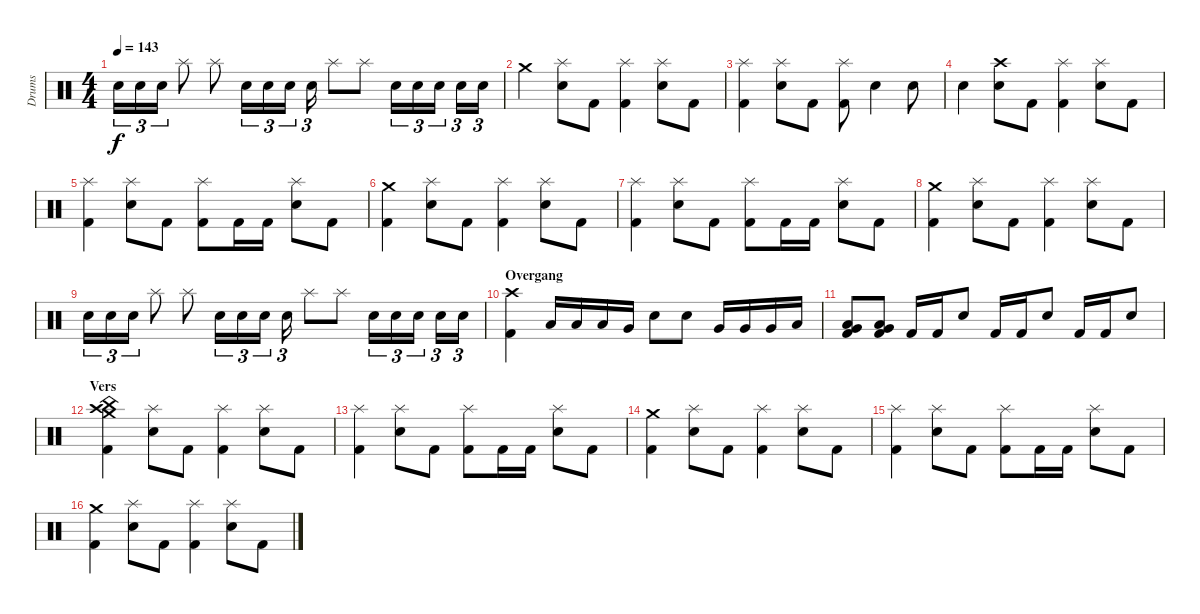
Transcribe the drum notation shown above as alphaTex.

\track ("Drums" "Drums") {instrument percussion}
\staff {score}
\articulation defaults
\ts (4 4)
\tempo 143
\clef neutral
\ks c "Snare (hit) 2".16{tu (3 2) dy f} "Snare (hit) 2".16{tu (3 2)} "Snare (hit) 2".16{tu (3 2)} "Splash (hit)".8 "Splash (hit)".8 "Snare (hit) 2".16{tu (3 2)} "Snare (hit) 2".16{tu (3 2)} "Snare (hit) 2".16{tu (3 2)} "Snare (hit) 2".16{tu (3 2)} "Splash (hit)".8 "Splash (hit)".8 "Snare (hit) 2".16{tu (3 2)} "Snare (hit) 2".16{tu (3 2)} "Snare (hit) 2".16{tu (3 2) beam splitsecondary} "Snare (hit) 2".16{tu (3 2)} "Snare (hit) 2".16{tu (3 2)}
|
"Crash medium (hit)".4 ("Splash (hit)" "Snare (hit) 2").8 "Kick (hit) 2".8 ("Splash (hit)" "Kick (hit) 2").4 ("Splash (hit)" "Snare (hit) 2").8 "Kick (hit) 2".8 |
("Splash (hit)" "Kick (hit) 2").4 ("Splash (hit)" "Snare (hit) 2").8 "Kick (hit) 2".8 ("Splash (hit)" "Kick (hit) 2").8 "Snare (hit) 2".4 "Snare (hit) 2".8 |
"Snare (hit) 2".4 ("Crash high (hit)" "Snare (hit) 2").8 "Kick (hit) 2".8 ("Splash (hit)" "Kick (hit) 2").4 ("Splash (hit)" "Snare (hit) 2").8 "Kick (hit) 2".8 |
("Splash (hit)" "Kick (hit) 2").4 ("Splash (hit)" "Snare (hit) 2").8 "Kick (hit) 2".8 ("Splash (hit)" "Kick (hit) 2").8 "Kick (hit) 2".16 "Kick (hit) 2".16 ("Splash (hit)" "Snare (hit) 2").8 "Kick (hit) 2".8 |
("Crash medium (hit)" "Kick (hit) 2").4 ("Splash (hit)" "Snare (hit) 2").8 "Kick (hit) 2".8 ("Splash (hit)" "Kick (hit) 2").4 ("Splash (hit)" "Snare (hit) 2").8 "Kick (hit) 2".8 |
("Splash (hit)" "Kick (hit) 2").4 ("Splash (hit)" "Snare (hit) 2").8 "Kick (hit) 2".8 ("Splash (hit)" "Kick (hit) 2").8 "Kick (hit) 2".16 "Kick (hit) 2".16 ("Splash (hit)" "Snare (hit) 2").8 "Kick (hit) 2".8 |
("Crash medium (hit)" "Kick (hit) 2").4 ("Splash (hit)" "Snare (hit) 2").8 "Kick (hit) 2".8 ("Splash (hit)" "Kick (hit) 2").4 ("Splash (hit)" "Snare (hit) 2").8 "Kick (hit) 2".8 |
"Snare (hit) 2".16{tu (3 2)} "Snare (hit) 2".16{tu (3 2)} "Snare (hit) 2".16{tu (3 2)} "Splash (hit)".8 "Splash (hit)".8 "Snare (hit) 2".16{tu (3 2)} "Snare (hit) 2".16{tu (3 2)} "Snare (hit) 2".16{tu (3 2)} "Snare (hit) 2".16{tu (3 2)} "Splash (hit)".8 "Splash (hit)".8 "Snare (hit) 2".16{tu (3 2)} "Snare (hit) 2".16{tu (3 2)} "Snare (hit) 2".16{tu (3 2) beam splitsecondary} "Snare (hit) 2".16{tu (3 2)} "Snare (hit) 2".16{tu (3 2)} |
\section ("" "Overgang")
("Crash high (hit)" "Kick (hit) 2").4 "Low Tom (hit)".16 "Low Tom (hit)".16 "Low Tom (hit)".16 "Very Low Tom (hit)".16 "Snare (hit) 2".8 "Snare (hit) 2".8 "Very Low Tom (hit)".16 "Very Low Tom (hit)".16 "Very Low Tom (hit)".16 "Low Floor Tom (hit)".16 |
("Low Floor Tom (hit)" "Very Low Tom (hit)" "Kick (hit) 2").8 ("Low Floor Tom (hit)" "Very Low Tom (hit)" "Kick (hit) 2").8 "Kick (hit) 2".16 "Kick (hit) 2".16 "Snare (hit) 2".8 "Kick (hit) 2".16 "Kick (hit) 2".16 "Snare (hit) 2".8 "Kick (hit) 2".16 "Kick (hit) 2".16 "Snare (hit) 2".8 |
\section ("" "Vers")
("China (hit)" "Crash medium (hit)" "Crash high (hit)" "Kick (hit) 2").4 ("Splash (hit)" "Snare (hit) 2").8 "Kick (hit) 2".8 ("Splash (hit)" "Kick (hit) 2").4 ("Splash (hit)" "Snare (hit) 2").8 "Kick (hit) 2".8 |
("Splash (hit)" "Kick (hit) 2").4 ("Splash (hit)" "Snare (hit) 2").8 "Kick (hit) 2".8 ("Splash (hit)" "Kick (hit) 2").8 "Kick (hit) 2".16 "Kick (hit) 2".16 ("Splash (hit)" "Snare (hit) 2").8 "Kick (hit) 2".8 |
("Crash medium (hit)" "Kick (hit) 2").4 ("Splash (hit)" "Snare (hit) 2").8 "Kick (hit) 2".8 ("Splash (hit)" "Kick (hit) 2").4 ("Splash (hit)" "Snare (hit) 2").8 "Kick (hit) 2".8 |
("Splash (hit)" "Kick (hit) 2").4 ("Splash (hit)" "Snare (hit) 2").8 "Kick (hit) 2".8 ("Splash (hit)" "Kick (hit) 2").8 "Kick (hit) 2".16 "Kick (hit) 2".16 ("Splash (hit)" "Snare (hit) 2").8 "Kick (hit) 2".8 |
("Crash medium (hit)" "Kick (hit) 2").4 ("Splash (hit)" "Snare (hit) 2").8 "Kick (hit) 2".8 ("Splash (hit)" "Kick (hit) 2").4 ("Splash (hit)" "Snare (hit) 2").8 "Kick (hit) 2".8
